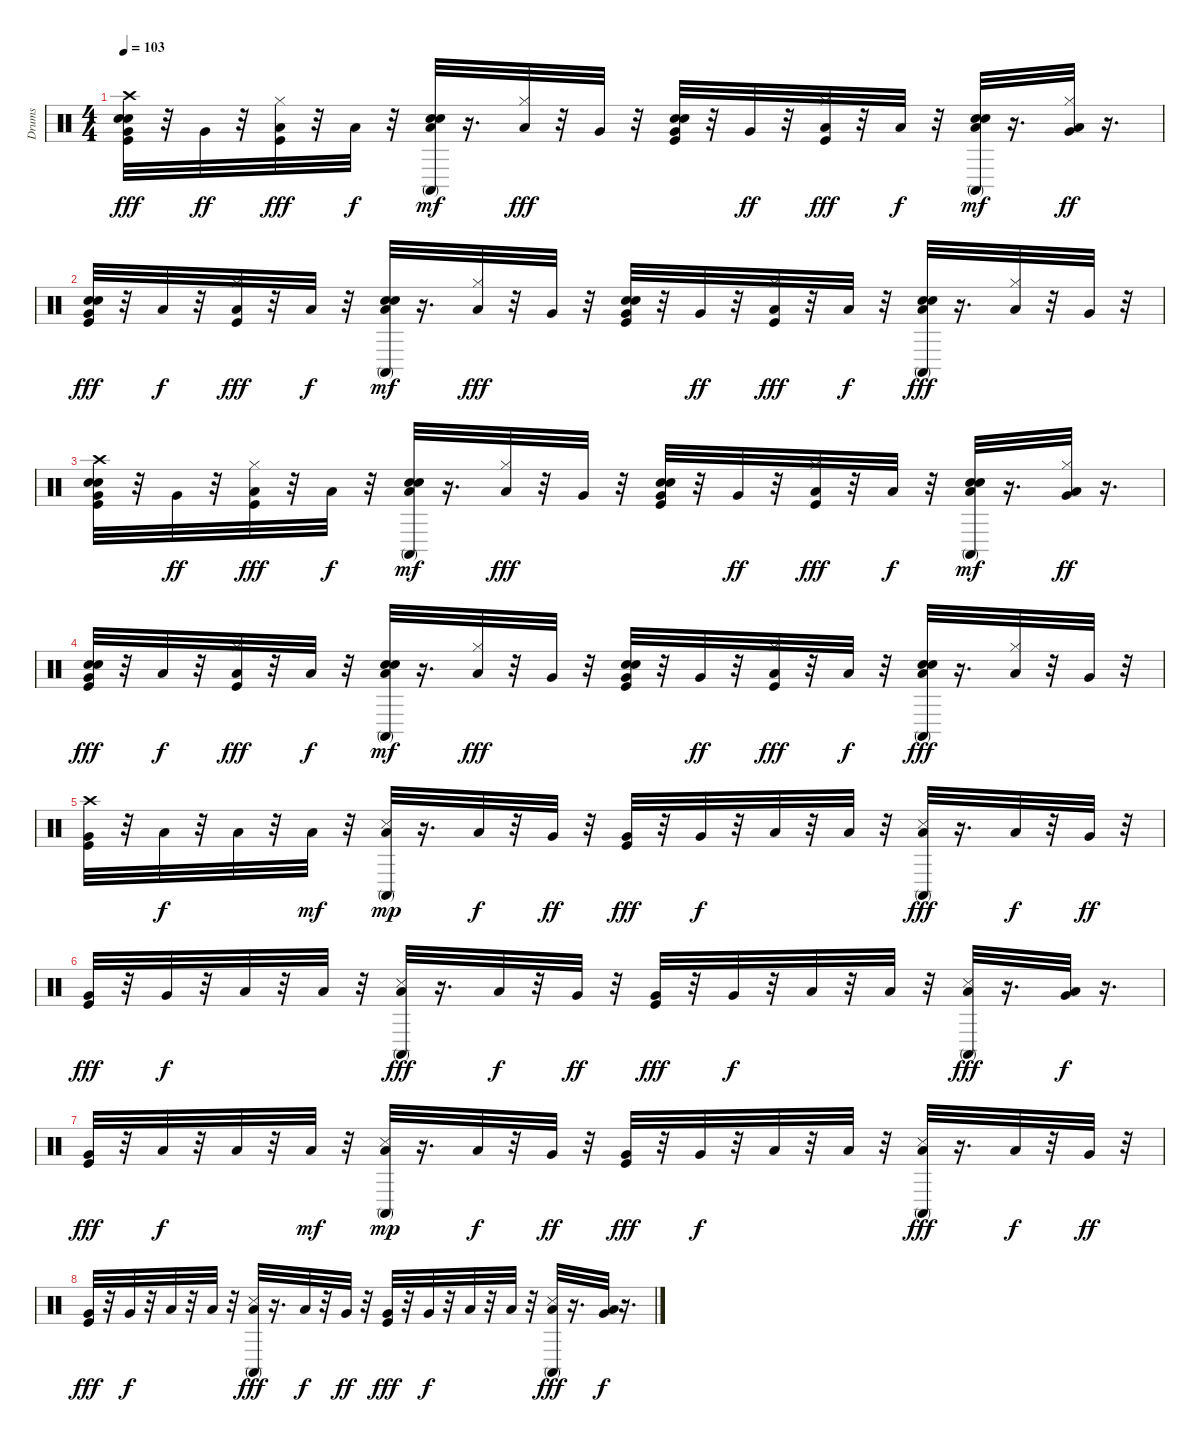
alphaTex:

\track ("Drums" "Drums") {instrument percussion}
\staff {score}
\articulation defaults
\ts (4 4)
\tempo 103
\clef neutral
\ks c
("Crash high (hit)" "Electric Snare (hit)" "Snare (hit) 2" "Very Low Tom (hit)" "Kick (hit)").32{dy fff} r.32 "Very Low Tom (hit)".32{dy ff} r.32 ("Hi-Hat (closed)" "Kick (hit)" "Low Floor Tom (hit)").32{dy fff} r.32 "Low Floor Tom (hit)".32{dy f} r.32 ("Electric Snare (hit)" "Snare (hit) 2" "Conga high (mute)" "Low Floor Tom (hit)").32{dy mf} r.16{d} ("Hi-Hat (closed)" "Low Floor Tom (hit)").32{dy fff} r.32 "Very Low Tom (hit)".32 r.32 ("Electric Snare (hit)" "Snare (hit) 2" "Very Low Tom (hit)" "Kick (hit)").32 r.32 "Very Low Tom (hit)".32{dy ff} r.32 ("Hi-Hat (closed)" "Kick (hit)" "Low Floor Tom (hit)").32{dy fff} r.32 "Low Floor Tom (hit)".32{dy f} r.32 ("Electric Snare (hit)" "Snare (hit) 2" "Conga high (mute)" "Low Floor Tom (hit)").32{dy mf} r.16{d} ("Hi-Hat (closed)" "Low Floor Tom (hit)" "Very Low Tom (hit)").32{dy ff} r.16{d} |
("Electric Snare (hit)" "Snare (hit) 2" "Very Low Tom (hit)" "Kick (hit)").32{dy fff} r.32 "Low Floor Tom (hit)".32{dy f} r.32 ("Hi-Hat (closed)" "Kick (hit)" "Low Floor Tom (hit)").32{dy fff} r.32 "Low Floor Tom (hit)".32{dy f} r.32 ("Electric Snare (hit)" "Snare (hit) 2" "Conga high (mute)" "Low Floor Tom (hit)").32{dy mf} r.16{d} ("Hi-Hat (closed)" "Low Floor Tom (hit)").32{dy fff} r.32 "Very Low Tom (hit)".32 r.32 ("Electric Snare (hit)" "Snare (hit) 2" "Very Low Tom (hit)" "Kick (hit)").32 r.32 "Very Low Tom (hit)".32{dy ff} r.32 ("Hi-Hat (closed)" "Kick (hit)" "Low Floor Tom (hit)").32{dy fff} r.32 "Low Floor Tom (hit)".32{dy f} r.32 ("Electric Snare (hit)" "Snare (hit) 2" "Conga high (mute)" "Low Floor Tom (hit)").32{dy fff} r.16{d} ("Hi-Hat (closed)" "Low Floor Tom (hit)").32 r.32 "Very Low Tom (hit)".32 r.32 |
("Crash high (hit)" "Electric Snare (hit)" "Snare (hit) 2" "Very Low Tom (hit)" "Kick (hit)").32 r.32 "Very Low Tom (hit)".32{dy ff} r.32 ("Hi-Hat (closed)" "Kick (hit)" "Low Floor Tom (hit)").32{dy fff} r.32 "Low Floor Tom (hit)".32{dy f} r.32 ("Electric Snare (hit)" "Snare (hit) 2" "Conga high (mute)" "Low Floor Tom (hit)").32{dy mf} r.16{d} ("Hi-Hat (closed)" "Low Floor Tom (hit)").32{dy fff} r.32 "Very Low Tom (hit)".32 r.32 ("Electric Snare (hit)" "Snare (hit) 2" "Very Low Tom (hit)" "Kick (hit)").32 r.32 "Very Low Tom (hit)".32{dy ff} r.32 ("Hi-Hat (closed)" "Kick (hit)" "Low Floor Tom (hit)").32{dy fff} r.32 "Low Floor Tom (hit)".32{dy f} r.32 ("Electric Snare (hit)" "Snare (hit) 2" "Conga high (mute)" "Low Floor Tom (hit)").32{dy mf} r.16{d} ("Hi-Hat (closed)" "Low Floor Tom (hit)" "Very Low Tom (hit)").32{dy ff} r.16{d} |
("Electric Snare (hit)" "Snare (hit) 2" "Very Low Tom (hit)" "Kick (hit)").32{dy fff} r.32 "Low Floor Tom (hit)".32{dy f} r.32 ("Hi-Hat (closed)" "Kick (hit)" "Low Floor Tom (hit)").32{dy fff} r.32 "Low Floor Tom (hit)".32{dy f} r.32 ("Electric Snare (hit)" "Snare (hit) 2" "Conga high (mute)" "Low Floor Tom (hit)").32{dy mf} r.16{d} ("Hi-Hat (closed)" "Low Floor Tom (hit)").32{dy fff} r.32 "Very Low Tom (hit)".32 r.32 ("Electric Snare (hit)" "Snare (hit) 2" "Very Low Tom (hit)" "Kick (hit)").32 r.32 "Very Low Tom (hit)".32{dy ff} r.32 ("Hi-Hat (closed)" "Kick (hit)" "Low Floor Tom (hit)").32{dy fff} r.32 "Low Floor Tom (hit)".32{dy f} r.32 ("Electric Snare (hit)" "Snare (hit) 2" "Conga high (mute)" "Low Floor Tom (hit)").32{dy fff} r.16{d} ("Hi-Hat (closed)" "Low Floor Tom (hit)").32 r.32 "Very Low Tom (hit)".32 r.32 |
("Crash high (hit)" "Very Low Tom (hit)" "Kick (hit)").32 r.32 "Low Floor Tom (hit)".32{dy f} r.32 "Low Floor Tom (hit)".32 r.32 "Low Floor Tom (hit)".32{dy mf} r.32 ("Conga high (mute)" "Snare (side stick) 3" "Low Floor Tom (hit)").32{dy mp} r.16{d} "Low Floor Tom (hit)".32{dy f} r.32 "Very Low Tom (hit)".32{dy ff} r.32 ("Very Low Tom (hit)" "Kick (hit)").32{dy fff} r.32 "Very Low Tom (hit)".32{dy f} r.32 "Low Floor Tom (hit)".32 r.32 "Low Floor Tom (hit)".32 r.32 ("Conga high (mute)" "Low Floor Tom (hit)" "Snare (side stick) 3").32{dy fff} r.16{d} "Low Floor Tom (hit)".32{dy f} r.32 "Very Low Tom (hit)".32{dy ff} r.32 |
("Very Low Tom (hit)" "Kick (hit)").32{dy fff} r.32 "Very Low Tom (hit)".32{dy f} r.32 "Low Floor Tom (hit)".32 r.32 "Low Floor Tom (hit)".32 r.32 ("Conga high (mute)" "Low Floor Tom (hit)" "Snare (side stick) 3").32{dy fff} r.16{d} "Low Floor Tom (hit)".32{dy f} r.32 "Very Low Tom (hit)".32{dy ff} r.32 ("Very Low Tom (hit)" "Kick (hit)").32{dy fff} r.32 "Very Low Tom (hit)".32{dy f} r.32 "Low Floor Tom (hit)".32 r.32 "Low Floor Tom (hit)".32 r.32 ("Conga high (mute)" "Low Floor Tom (hit)" "Snare (side stick) 3").32{dy fff} r.16{d} ("Low Floor Tom (hit)" "Very Low Tom (hit)").32{dy f} r.16{d} |
("Very Low Tom (hit)" "Kick (hit)").32{dy fff} r.32 "Low Floor Tom (hit)".32{dy f} r.32 "Low Floor Tom (hit)".32 r.32 "Low Floor Tom (hit)".32{dy mf} r.32 ("Conga high (mute)" "Snare (side stick) 3" "Low Floor Tom (hit)").32{dy mp} r.16{d} "Low Floor Tom (hit)".32{dy f} r.32 "Very Low Tom (hit)".32{dy ff} r.32 ("Very Low Tom (hit)" "Kick (hit)").32{dy fff} r.32 "Very Low Tom (hit)".32{dy f} r.32 "Low Floor Tom (hit)".32 r.32 "Low Floor Tom (hit)".32 r.32 ("Conga high (mute)" "Low Floor Tom (hit)" "Snare (side stick) 3").32{dy fff} r.16{d} "Low Floor Tom (hit)".32{dy f} r.32 "Very Low Tom (hit)".32{dy ff} r.32 |
("Very Low Tom (hit)" "Kick (hit)").32{dy fff} r.32 "Very Low Tom (hit)".32{dy f} r.32 "Low Floor Tom (hit)".32 r.32 "Low Floor Tom (hit)".32 r.32 ("Conga high (mute)" "Low Floor Tom (hit)" "Snare (side stick) 3").32{dy fff} r.16{d} "Low Floor Tom (hit)".32{dy f} r.32 "Very Low Tom (hit)".32{dy ff} r.32 ("Very Low Tom (hit)" "Kick (hit)").32{dy fff} r.32 "Very Low Tom (hit)".32{dy f} r.32 "Low Floor Tom (hit)".32 r.32 "Low Floor Tom (hit)".32 r.32 ("Conga high (mute)" "Low Floor Tom (hit)" "Snare (side stick) 3").32{dy fff} r.16{d} ("Low Floor Tom (hit)" "Very Low Tom (hit)").32{dy f} r.16{d}
